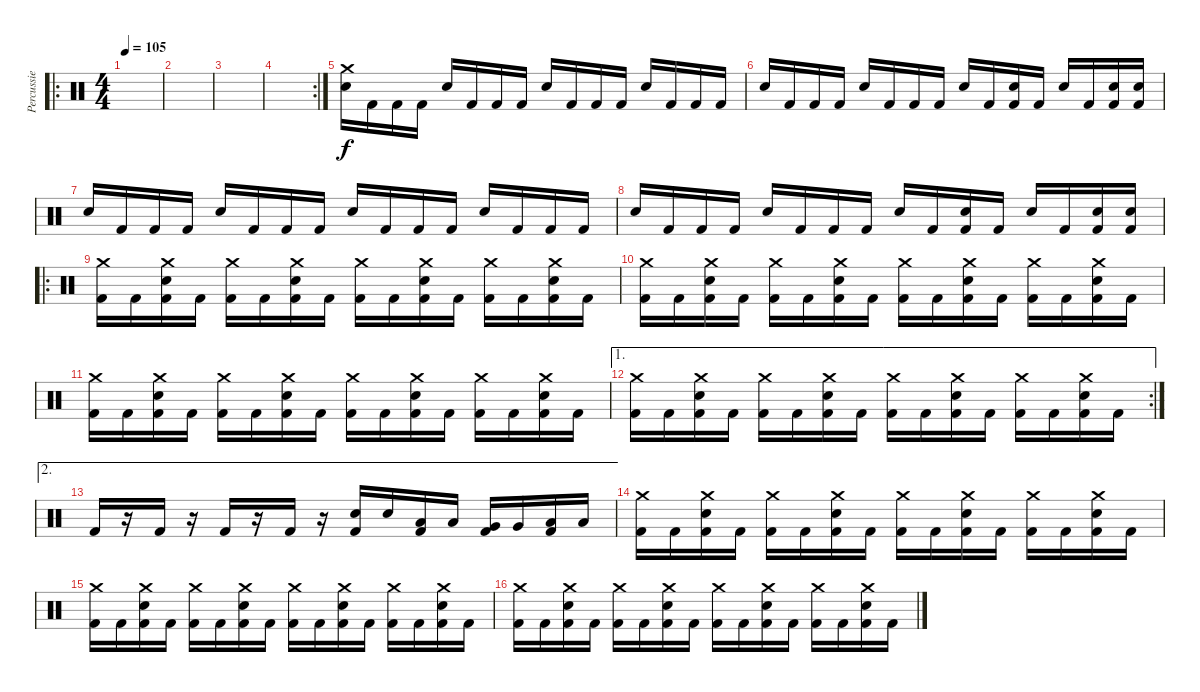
\track ("Percussie" "Percussie") {instrument percussion}
\staff {score}
\articulation defaults
\ro
\ts (4 4)
\tempo 105
\clef neutral
\ks c
|
|
|
\rc 2
|
("Crash medium (hit)" "Electric Snare (hit)").16 "Kick (hit) 2".16 "Kick (hit) 2".16 "Kick (hit) 2".16 "Electric Snare (hit)".16 "Kick (hit) 2".16 "Kick (hit) 2".16 "Kick (hit) 2".16 "Electric Snare (hit)".16 "Kick (hit) 2".16 "Kick (hit) 2".16 "Kick (hit) 2".16 "Electric Snare (hit)".16 "Kick (hit) 2".16 "Kick (hit) 2".16 "Kick (hit) 2".16 |
"Electric Snare (hit)".16 "Kick (hit) 2".16 "Kick (hit) 2".16 "Kick (hit) 2".16 "Electric Snare (hit)".16 "Kick (hit) 2".16 "Kick (hit) 2".16 "Kick (hit) 2".16 "Electric Snare (hit)".16 "Kick (hit) 2".16 ("Electric Snare (hit)" "Kick (hit) 2").16 "Kick (hit) 2".16 "Electric Snare (hit)".16 "Kick (hit) 2".16 ("Electric Snare (hit)" "Kick (hit) 2").16 ("Electric Snare (hit)" "Kick (hit) 2").16 |
"Electric Snare (hit)".16 "Kick (hit) 2".16 "Kick (hit) 2".16 "Kick (hit) 2".16 "Electric Snare (hit)".16 "Kick (hit) 2".16 "Kick (hit) 2".16 "Kick (hit) 2".16 "Electric Snare (hit)".16 "Kick (hit) 2".16 "Kick (hit) 2".16 "Kick (hit) 2".16 "Electric Snare (hit)".16 "Kick (hit) 2".16 "Kick (hit) 2".16 "Kick (hit) 2".16 |
"Electric Snare (hit)".16 "Kick (hit) 2".16 "Kick (hit) 2".16 "Kick (hit) 2".16 "Electric Snare (hit)".16 "Kick (hit) 2".16 "Kick (hit) 2".16 "Kick (hit) 2".16 "Electric Snare (hit)".16 "Kick (hit) 2".16 ("Electric Snare (hit)" "Kick (hit) 2").16 "Kick (hit) 2".16 "Electric Snare (hit)".16 "Kick (hit) 2".16 ("Electric Snare (hit)" "Kick (hit) 2").16 ("Electric Snare (hit)" "Kick (hit) 2").16 |
\ro
("Crash medium (hit)" "Kick (hit) 2").16 "Kick (hit) 2".16 ("Crash medium (hit)" "Electric Snare (hit)" "Kick (hit) 2").16 "Kick (hit) 2".16 ("Crash medium (hit)" "Kick (hit) 2").16 "Kick (hit) 2".16 ("Crash medium (hit)" "Electric Snare (hit)" "Kick (hit) 2").16 "Kick (hit) 2".16 ("Crash medium (hit)" "Kick (hit) 2").16 "Kick (hit) 2".16 ("Crash medium (hit)" "Electric Snare (hit)" "Kick (hit) 2").16 "Kick (hit) 2".16 ("Crash medium (hit)" "Kick (hit) 2").16 "Kick (hit) 2".16 ("Crash medium (hit)" "Electric Snare (hit)" "Kick (hit) 2").16 "Kick (hit) 2".16 |
("Crash medium (hit)" "Kick (hit) 2").16 "Kick (hit) 2".16 ("Crash medium (hit)" "Electric Snare (hit)" "Kick (hit) 2").16 "Kick (hit) 2".16 ("Crash medium (hit)" "Kick (hit) 2").16 "Kick (hit) 2".16 ("Crash medium (hit)" "Electric Snare (hit)" "Kick (hit) 2").16 "Kick (hit) 2".16 ("Crash medium (hit)" "Kick (hit) 2").16 "Kick (hit) 2".16 ("Crash medium (hit)" "Electric Snare (hit)" "Kick (hit) 2").16 "Kick (hit) 2".16 ("Crash medium (hit)" "Kick (hit) 2").16 "Kick (hit) 2".16 ("Crash medium (hit)" "Electric Snare (hit)" "Kick (hit) 2").16 "Kick (hit) 2".16 |
("Crash medium (hit)" "Kick (hit) 2").16 "Kick (hit) 2".16 ("Crash medium (hit)" "Electric Snare (hit)" "Kick (hit) 2").16 "Kick (hit) 2".16 ("Crash medium (hit)" "Kick (hit) 2").16 "Kick (hit) 2".16 ("Crash medium (hit)" "Electric Snare (hit)" "Kick (hit) 2").16 "Kick (hit) 2".16 ("Crash medium (hit)" "Kick (hit) 2").16 "Kick (hit) 2".16 ("Crash medium (hit)" "Electric Snare (hit)" "Kick (hit) 2").16 "Kick (hit) 2".16 ("Crash medium (hit)" "Kick (hit) 2").16 "Kick (hit) 2".16 ("Crash medium (hit)" "Electric Snare (hit)" "Kick (hit) 2").16 "Kick (hit) 2".16 |
\ae 1
\rc 2
("Crash medium (hit)" "Kick (hit) 2").16 "Kick (hit) 2".16 ("Crash medium (hit)" "Electric Snare (hit)" "Kick (hit) 2").16 "Kick (hit) 2".16 ("Crash medium (hit)" "Kick (hit) 2").16 "Kick (hit) 2".16 ("Crash medium (hit)" "Electric Snare (hit)" "Kick (hit) 2").16 "Kick (hit) 2".16 ("Crash medium (hit)" "Kick (hit) 2").16 "Kick (hit) 2".16 ("Crash medium (hit)" "Electric Snare (hit)" "Kick (hit) 2").16 "Kick (hit) 2".16 ("Crash medium (hit)" "Kick (hit) 2").16 "Kick (hit) 2".16 ("Crash medium (hit)" "Electric Snare (hit)" "Kick (hit) 2").16 "Kick (hit) 2".16 |
\ae 2 "Kick (hit) 2".16
r.16 "Kick (hit) 2".16 r.16 "Kick (hit) 2".16 r.16 "Kick (hit) 2".16 r.16 ("Electric Snare (hit)" "Kick (hit) 2").16 "Electric Snare (hit)".16 ("Low Floor Tom (hit)" "Kick (hit) 2").16 "Low Floor Tom (hit)".16 ("Very Low Tom (hit)" "Kick (hit) 2").16 "Very Low Tom (hit)".16 ("Low Tom (hit)" "Kick (hit) 2").16 "Low Tom (hit)".16 |
("Crash medium (hit)" "Kick (hit) 2").16 "Kick (hit) 2".16 ("Crash medium (hit)" "Electric Snare (hit)" "Kick (hit) 2").16 "Kick (hit) 2".16 ("Crash medium (hit)" "Kick (hit) 2").16 "Kick (hit) 2".16 ("Crash medium (hit)" "Electric Snare (hit)" "Kick (hit) 2").16 "Kick (hit) 2".16 ("Crash medium (hit)" "Kick (hit) 2").16 "Kick (hit) 2".16 ("Crash medium (hit)" "Electric Snare (hit)" "Kick (hit) 2").16 "Kick (hit) 2".16 ("Crash medium (hit)" "Kick (hit) 2").16 "Kick (hit) 2".16 ("Crash medium (hit)" "Electric Snare (hit)" "Kick (hit) 2").16 "Kick (hit) 2".16 |
("Crash medium (hit)" "Kick (hit) 2").16 "Kick (hit) 2".16 ("Crash medium (hit)" "Electric Snare (hit)" "Kick (hit) 2").16 "Kick (hit) 2".16 ("Crash medium (hit)" "Kick (hit) 2").16 "Kick (hit) 2".16 ("Crash medium (hit)" "Electric Snare (hit)" "Kick (hit) 2").16 "Kick (hit) 2".16 ("Crash medium (hit)" "Kick (hit) 2").16 "Kick (hit) 2".16 ("Crash medium (hit)" "Electric Snare (hit)" "Kick (hit) 2").16 "Kick (hit) 2".16 ("Crash medium (hit)" "Kick (hit) 2").16 "Kick (hit) 2".16 ("Crash medium (hit)" "Electric Snare (hit)" "Kick (hit) 2").16 "Kick (hit) 2".16 |
("Crash medium (hit)" "Kick (hit) 2").16 "Kick (hit) 2".16 ("Crash medium (hit)" "Electric Snare (hit)" "Kick (hit) 2").16 "Kick (hit) 2".16 ("Crash medium (hit)" "Kick (hit) 2").16 "Kick (hit) 2".16 ("Crash medium (hit)" "Electric Snare (hit)" "Kick (hit) 2").16 "Kick (hit) 2".16 ("Crash medium (hit)" "Kick (hit) 2").16 "Kick (hit) 2".16 ("Crash medium (hit)" "Electric Snare (hit)" "Kick (hit) 2").16 "Kick (hit) 2".16 ("Crash medium (hit)" "Kick (hit) 2").16 "Kick (hit) 2".16 ("Crash medium (hit)" "Electric Snare (hit)" "Kick (hit) 2").16 "Kick (hit) 2".16
